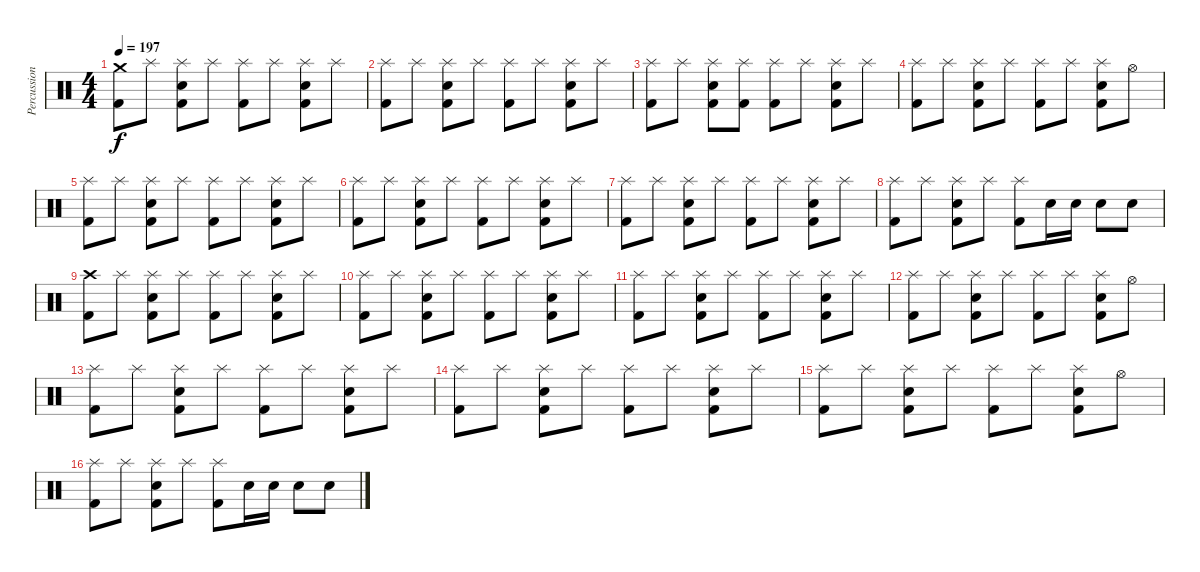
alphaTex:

\track ("Percussion" "Percussion") {instrument percussion}
\staff {score}
\articulation defaults
\ts (4 4)
\tempo 197
\clef neutral
\ks c
("Crash medium (hit)" "Kick (hit) 2").8{dy f} "Splash (hit)".8 ("Snare (hit) 2" "Splash (hit)" "Kick (hit) 2").8 "Splash (hit)".8 ("Splash (hit)" "Kick (hit) 2").8 "Splash (hit)".8 ("Snare (hit) 2" "Splash (hit)" "Kick (hit) 2").8 "Splash (hit)".8 |
("Splash (hit)" "Kick (hit) 2").8 "Splash (hit)".8 ("Snare (hit) 2" "Splash (hit)" "Kick (hit) 2").8 "Splash (hit)".8 ("Splash (hit)" "Kick (hit) 2").8 "Splash (hit)".8 ("Snare (hit) 2" "Splash (hit)" "Kick (hit) 2").8 "Splash (hit)".8 |
("Splash (hit)" "Kick (hit) 2").8 "Splash (hit)".8 ("Snare (hit) 2" "Splash (hit)" "Kick (hit) 2").8 ("Splash (hit)" "Kick (hit) 2").8 ("Splash (hit)" "Kick (hit) 2").8 "Splash (hit)".8 ("Snare (hit) 2" "Splash (hit)" "Kick (hit) 2").8 "Splash (hit)".8 |
("Splash (hit)" "Kick (hit) 2").8 "Splash (hit)".8 ("Snare (hit) 2" "Splash (hit)" "Kick (hit) 2").8 "Splash (hit)".8 ("Splash (hit)" "Kick (hit) 2").8 "Splash (hit)".8 ("Snare (hit) 2" "Splash (hit)" "Kick (hit) 2").8 "Hi-Hat (open)".8 |
("Splash (hit)" "Kick (hit) 2").8 "Splash (hit)".8 ("Snare (hit) 2" "Splash (hit)" "Kick (hit) 2").8 "Splash (hit)".8 ("Splash (hit)" "Kick (hit) 2").8 "Splash (hit)".8 ("Snare (hit) 2" "Splash (hit)" "Kick (hit) 2").8 "Splash (hit)".8 |
("Splash (hit)" "Kick (hit) 2").8 "Splash (hit)".8 ("Snare (hit) 2" "Splash (hit)" "Kick (hit) 2").8 "Splash (hit)".8 ("Splash (hit)" "Kick (hit) 2").8 "Splash (hit)".8 ("Snare (hit) 2" "Splash (hit)" "Kick (hit) 2").8 "Splash (hit)".8 |
("Splash (hit)" "Kick (hit) 2").8 "Splash (hit)".8 ("Snare (hit) 2" "Splash (hit)" "Kick (hit) 2").8 "Splash (hit)".8 ("Splash (hit)" "Kick (hit) 2").8 "Splash (hit)".8 ("Snare (hit) 2" "Splash (hit)" "Kick (hit) 2").8 "Splash (hit)".8 |
("Splash (hit)" "Kick (hit) 2").8 "Splash (hit)".8 ("Snare (hit) 2" "Splash (hit)" "Kick (hit) 2").8 "Splash (hit)".8 ("Splash (hit)" "Kick (hit) 2").8 "Snare (hit) 2".16 "Snare (hit) 2".16 "Snare (hit) 2".8 "Snare (hit) 2".8 |
("Crash high (hit)" "Kick (hit) 2").8 "Splash (hit)".8 ("Snare (hit) 2" "Splash (hit)" "Kick (hit) 2").8 "Splash (hit)".8 ("Splash (hit)" "Kick (hit) 2").8 "Splash (hit)".8 ("Snare (hit) 2" "Splash (hit)" "Kick (hit) 2").8 "Splash (hit)".8 |
("Splash (hit)" "Kick (hit) 2").8 "Splash (hit)".8 ("Snare (hit) 2" "Splash (hit)" "Kick (hit) 2").8 "Splash (hit)".8 ("Splash (hit)" "Kick (hit) 2").8 "Splash (hit)".8 ("Snare (hit) 2" "Splash (hit)" "Kick (hit) 2").8 "Splash (hit)".8 |
("Splash (hit)" "Kick (hit) 2").8 "Splash (hit)".8 ("Snare (hit) 2" "Splash (hit)" "Kick (hit) 2").8 "Splash (hit)".8 ("Splash (hit)" "Kick (hit) 2").8 "Splash (hit)".8 ("Snare (hit) 2" "Splash (hit)" "Kick (hit) 2").8 "Splash (hit)".8 |
("Splash (hit)" "Kick (hit) 2").8 "Splash (hit)".8 ("Snare (hit) 2" "Splash (hit)" "Kick (hit) 2").8 "Splash (hit)".8 ("Splash (hit)" "Kick (hit) 2").8 "Splash (hit)".8 ("Snare (hit) 2" "Splash (hit)" "Kick (hit) 2").8 "Hi-Hat (open)".8 |
("Splash (hit)" "Kick (hit) 2").8 "Splash (hit)".8 ("Snare (hit) 2" "Splash (hit)" "Kick (hit) 2").8 "Splash (hit)".8 ("Splash (hit)" "Kick (hit) 2").8 "Splash (hit)".8 ("Snare (hit) 2" "Splash (hit)" "Kick (hit) 2").8 "Splash (hit)".8 |
("Splash (hit)" "Kick (hit) 2").8 "Splash (hit)".8 ("Snare (hit) 2" "Splash (hit)" "Kick (hit) 2").8 "Splash (hit)".8 ("Splash (hit)" "Kick (hit) 2").8 "Splash (hit)".8 ("Snare (hit) 2" "Splash (hit)" "Kick (hit) 2").8 "Splash (hit)".8 |
("Splash (hit)" "Kick (hit) 2").8 "Splash (hit)".8 ("Snare (hit) 2" "Splash (hit)" "Kick (hit) 2").8 "Splash (hit)".8 ("Splash (hit)" "Kick (hit) 2").8 "Splash (hit)".8 ("Snare (hit) 2" "Splash (hit)" "Kick (hit) 2").8 "Hi-Hat (open)".8 |
("Splash (hit)" "Kick (hit) 2").8 "Splash (hit)".8 ("Snare (hit) 2" "Splash (hit)" "Kick (hit) 2").8 "Splash (hit)".8 ("Splash (hit)" "Kick (hit) 2").8 "Snare (hit) 2".16 "Snare (hit) 2".16 "Snare (hit) 2".8 "Snare (hit) 2".8
